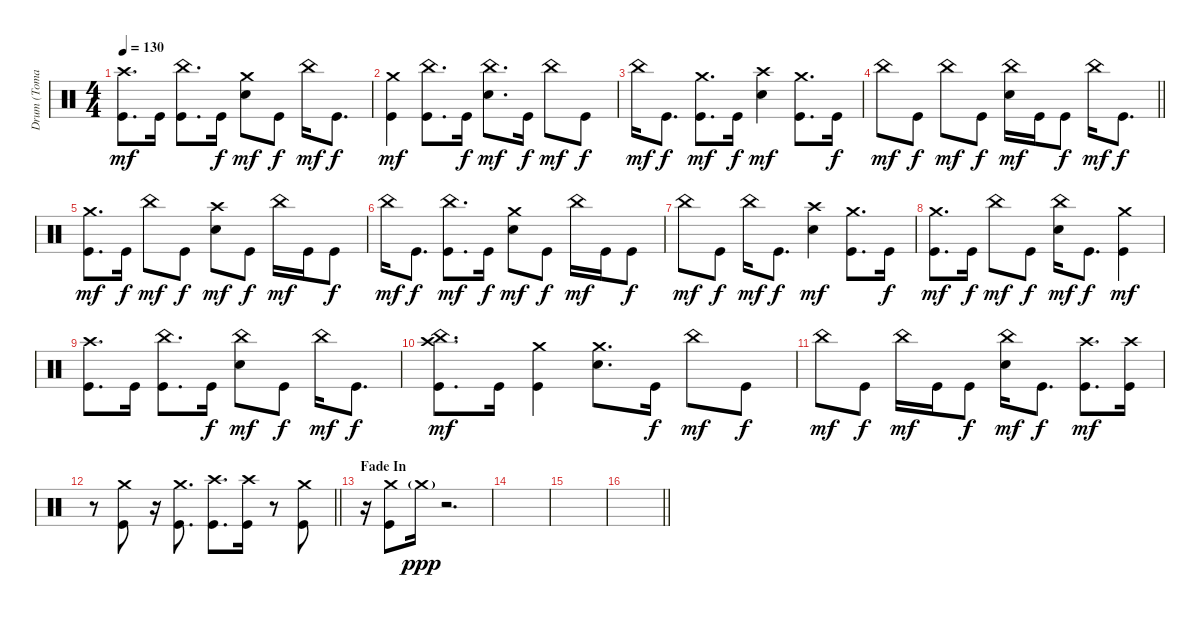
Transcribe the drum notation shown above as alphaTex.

\track ("Drum (Tomas Haake)" "Drum (Toma") {instrument percussion}
\staff {score}
\articulation defaults
\ts (4 4)
\tempo 130
\clef neutral
\ks c
("Crash high (hit)" "Kick (hit)").8{d dy mf} "Kick (hit)".16 ("China (hit)" "Kick (hit)").8{d} "Kick (hit)".16{dy f} ("Crash medium (hit)" "Electric Snare (hit)").8{dy mf} "Kick (hit)".8{dy f} "China (hit)".16{dy mf} "Kick (hit)".8{d dy f} |
("Crash medium (hit)" "Kick (hit)").4{dy mf} ("China (hit)" "Kick (hit)").8{d} "Kick (hit)".16{dy f} ("China (hit)" "Electric Snare (hit)").8{d dy mf} "Kick (hit)".16{dy f} "China (hit)".8{dy mf} "Kick (hit)".8{dy f} |
"China (hit)".16{dy mf} "Kick (hit)".8{d dy f} ("Crash medium (hit)" "Kick (hit)").8{d dy mf} "Kick (hit)".16{dy f} ("Crash high (hit)" "Electric Snare (hit)").4{dy mf} ("Crash medium (hit)" "Kick (hit)").8{d} "Kick (hit)".16{dy f} |
\barLineRight lightlight "China (hit)".8{dy mf} "Kick (hit)".8{dy f} "China (hit)".8{dy mf} "Kick (hit)".8{dy f}
("China (hit)" "Electric Snare (hit)").16{dy mf} "Kick (hit)".16 "Kick (hit)".8{dy f} "China (hit)".16{dy mf} "Kick (hit)".8{d dy f} |
("Crash medium (hit)" "Kick (hit)").8{d dy mf} "Kick (hit)".16{dy f} "China (hit)".8{dy mf} "Kick (hit)".8{dy f} ("Crash high (hit)" "Electric Snare (hit)").8{dy mf} "Kick (hit)".8{dy f} "China (hit)".16{dy mf} "Kick (hit)".16 "Kick (hit)".8{dy f} |
"China (hit)".16{dy mf} "Kick (hit)".8{d dy f} ("China (hit)" "Kick (hit)").8{d dy mf} "Kick (hit)".16{dy f} ("Crash medium (hit)" "Electric Snare (hit)").8{dy mf} "Kick (hit)".8{dy f} "China (hit)".16{dy mf} "Kick (hit)".16 "Kick (hit)".8{dy f} |
"China (hit)".8{dy mf} "Kick (hit)".8{dy f} "China (hit)".16{dy mf} "Kick (hit)".8{d dy f} ("Crash high (hit)" "Electric Snare (hit)").4{dy mf} ("Crash medium (hit)" "Kick (hit)").8{d} "Kick (hit)".16{dy f} |
("Crash medium (hit)" "Kick (hit)").8{d dy mf} "Kick (hit)".16{dy f} "China (hit)".8{dy mf} "Kick (hit)".8{dy f} ("China (hit)" "Electric Snare (hit)").16{dy mf} "Kick (hit)".8{d dy f} ("Crash medium (hit)" "Kick (hit)").4{dy mf} |
("Crash high (hit)" "Kick (hit)").8{d} "Kick (hit)".16 ("China (hit)" "Kick (hit)").8{d} "Kick (hit)".16{dy f} ("China (hit)" "Electric Snare (hit)").8{dy mf} "Kick (hit)".8{dy f} "China (hit)".16{dy mf} "Kick (hit)".8{d dy f} |
("Crash high (hit)" "China (hit)" "Kick (hit)").8{d dy mf} "Kick (hit)".16 ("Crash medium (hit)" "Kick (hit)").4 ("Crash medium (hit)" "Electric Snare (hit)").8{d} "Kick (hit)".16{dy f} "China (hit)".8{dy mf} "Kick (hit)".8{dy f} |
"China (hit)".8{dy mf} "Kick (hit)".8{dy f} "China (hit)".16{dy mf} "Kick (hit)".16 "Kick (hit)".8{dy f} ("China (hit)" "Electric Snare (hit)").16{dy mf} "Kick (hit)".8{d dy f} ("Crash high (hit)" "Kick (hit)").8{d dy mf} ("Crash high (hit)" "Kick (hit)").16 |
\barLineRight lightlight
r.8 ("Crash medium (hit)" "Kick (hit)").8 r.16 ("Crash medium (hit)" "Kick (hit)").8{d} ("Crash high (hit)" "Kick (hit)").8{d} ("Crash high (hit)" "Kick (hit)").16 r.8 ("Crash medium (hit)" "Kick (hit)").8 |
\section ("" "Fade In")
r.16 ("Crash medium (hit)" "Kick (hit)").8 "Crash medium (hit)"{g}.16{dy ppp} r.2{d} |
|
|
\barLineRight lightlight
